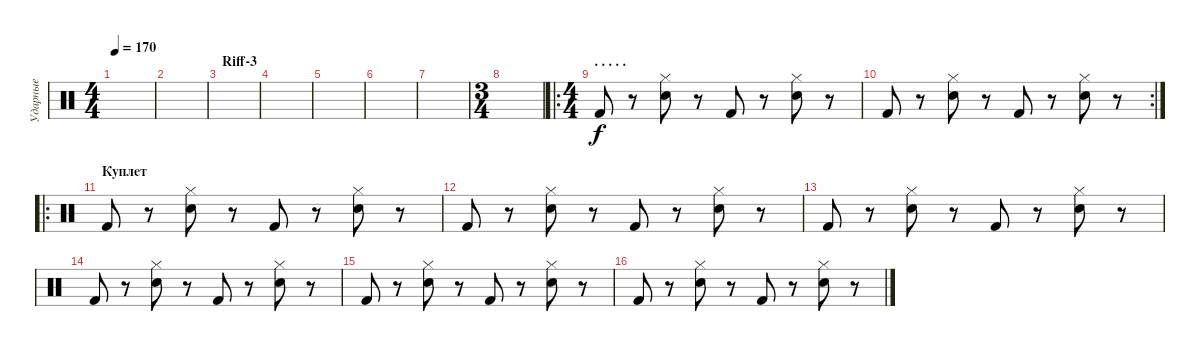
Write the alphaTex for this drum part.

\track ("Ударные" "Ударные") {instrument percussion}
\staff {score}
\articulation defaults
\ts (4 4)
\tempo 170
\clef neutral
\ks c
|
|
\section ("" "Riff-3")
|
|
|
|
|
\ts (3 4)
|
\ro
\ts (4 4)
\section ("" ". . . . .")
"Kick (hit) 2".8 r.8 ("Hi-Hat (closed)" "Electric Snare (hit)").8 r.8 "Kick (hit) 2".8 r.8 ("Hi-Hat (closed)" "Electric Snare (hit)").8 r.8 |
\rc 2 "Kick (hit) 2".8
r.8 ("Hi-Hat (closed)" "Electric Snare (hit)").8 r.8 "Kick (hit) 2".8 r.8 ("Hi-Hat (closed)" "Electric Snare (hit)").8 r.8 |
\ro
\section ("" "Куплет")
"Kick (hit) 2".8 r.8 ("Hi-Hat (closed)" "Electric Snare (hit)").8 r.8 "Kick (hit) 2".8 r.8 ("Hi-Hat (closed)" "Electric Snare (hit)").8 r.8 |
"Kick (hit) 2".8 r.8 ("Hi-Hat (closed)" "Electric Snare (hit)").8 r.8 "Kick (hit) 2".8 r.8 ("Hi-Hat (closed)" "Electric Snare (hit)").8 r.8 |
"Kick (hit) 2".8 r.8 ("Hi-Hat (closed)" "Electric Snare (hit)").8 r.8 "Kick (hit) 2".8 r.8 ("Hi-Hat (closed)" "Electric Snare (hit)").8 r.8 |
"Kick (hit) 2".8 r.8 ("Hi-Hat (closed)" "Electric Snare (hit)").8 r.8 "Kick (hit) 2".8 r.8 ("Hi-Hat (closed)" "Electric Snare (hit)").8 r.8 |
"Kick (hit) 2".8 r.8 ("Hi-Hat (closed)" "Electric Snare (hit)").8 r.8 "Kick (hit) 2".8 r.8 ("Hi-Hat (closed)" "Electric Snare (hit)").8 r.8 |
"Kick (hit) 2".8 r.8 ("Hi-Hat (closed)" "Electric Snare (hit)").8 r.8 "Kick (hit) 2".8 r.8 ("Hi-Hat (closed)" "Electric Snare (hit)").8 r.8
